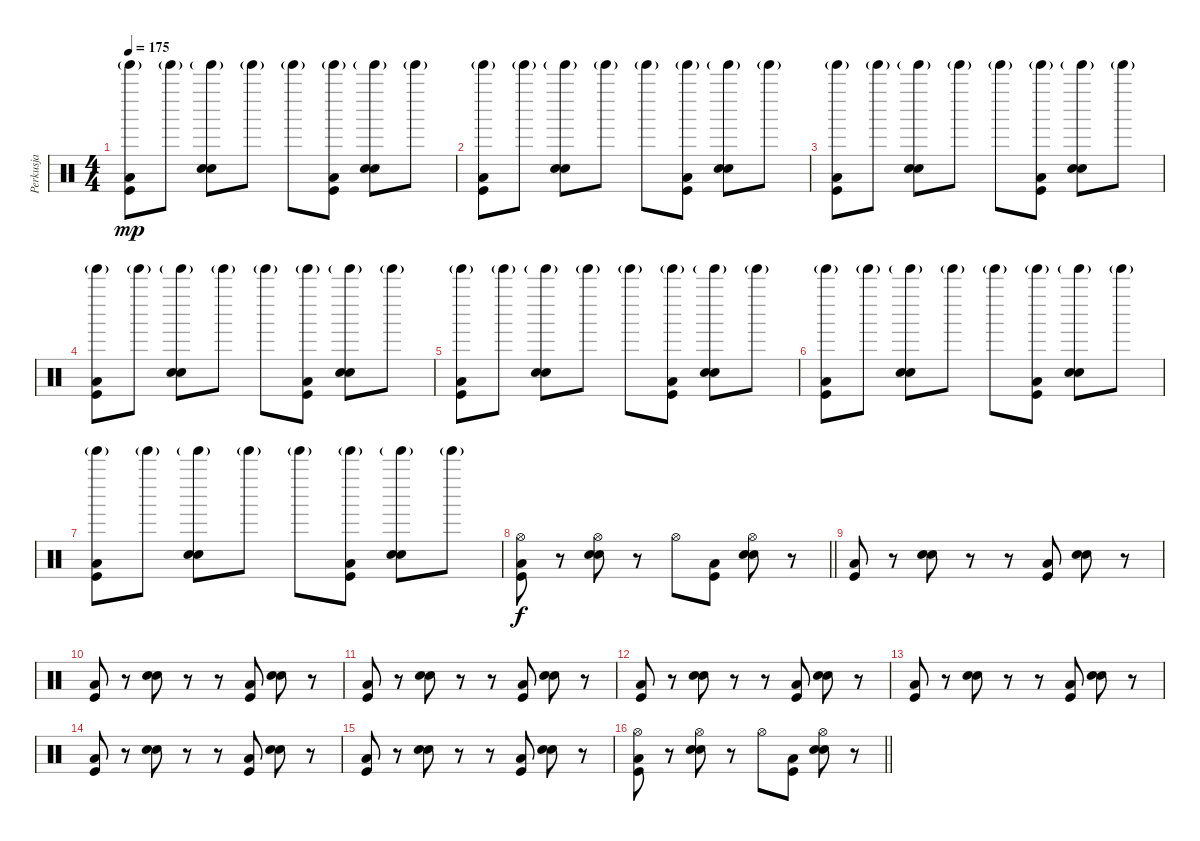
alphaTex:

\track ("Perkusja" "Perkusja") {instrument percussion}
\staff {score}
\articulation defaults
\ts (4 4)
\section ("" "")
\tempo 175
\clef neutral
\ks c
("Tinkle Bell (hit)"{g} "Low Floor Tom (hit)" "Kick (hit)").8{dy mp} "Tinkle Bell (hit)"{g}.8 ("Tinkle Bell (hit)"{g} "Snare (hit) 2" "Electric Snare (hit)").8 "Tinkle Bell (hit)"{g}.8 "Tinkle Bell (hit)"{g}.8 ("Tinkle Bell (hit)"{g} "Low Floor Tom (hit)" "Kick (hit)").8 ("Tinkle Bell (hit)"{g} "Snare (hit) 2" "Electric Snare (hit)").8 "Tinkle Bell (hit)"{g}.8 |
("Tinkle Bell (hit)"{g} "Low Floor Tom (hit)" "Kick (hit)").8 "Tinkle Bell (hit)"{g}.8 ("Tinkle Bell (hit)"{g} "Snare (hit) 2" "Electric Snare (hit)").8 "Tinkle Bell (hit)"{g}.8 "Tinkle Bell (hit)"{g}.8 ("Tinkle Bell (hit)"{g} "Low Floor Tom (hit)" "Kick (hit)").8 ("Tinkle Bell (hit)"{g} "Snare (hit) 2" "Electric Snare (hit)").8 "Tinkle Bell (hit)"{g}.8 |
("Tinkle Bell (hit)"{g} "Low Floor Tom (hit)" "Kick (hit)").8 "Tinkle Bell (hit)"{g}.8 ("Tinkle Bell (hit)"{g} "Snare (hit) 2" "Electric Snare (hit)").8 "Tinkle Bell (hit)"{g}.8 "Tinkle Bell (hit)"{g}.8 ("Tinkle Bell (hit)"{g} "Low Floor Tom (hit)" "Kick (hit)").8 ("Tinkle Bell (hit)"{g} "Snare (hit) 2" "Electric Snare (hit)").8 "Tinkle Bell (hit)"{g}.8 |
("Tinkle Bell (hit)"{g} "Low Floor Tom (hit)" "Kick (hit)").8 "Tinkle Bell (hit)"{g}.8 ("Tinkle Bell (hit)"{g} "Snare (hit) 2" "Electric Snare (hit)").8 "Tinkle Bell (hit)"{g}.8 "Tinkle Bell (hit)"{g}.8 ("Tinkle Bell (hit)"{g} "Low Floor Tom (hit)" "Kick (hit)").8 ("Tinkle Bell (hit)"{g} "Snare (hit) 2" "Electric Snare (hit)").8 "Tinkle Bell (hit)"{g}.8 |
("Tinkle Bell (hit)"{g} "Low Floor Tom (hit)" "Kick (hit)").8 "Tinkle Bell (hit)"{g}.8 ("Tinkle Bell (hit)"{g} "Snare (hit) 2" "Electric Snare (hit)").8 "Tinkle Bell (hit)"{g}.8 "Tinkle Bell (hit)"{g}.8 ("Tinkle Bell (hit)"{g} "Low Floor Tom (hit)" "Kick (hit)").8 ("Tinkle Bell (hit)"{g} "Snare (hit) 2" "Electric Snare (hit)").8 "Tinkle Bell (hit)"{g}.8 |
("Tinkle Bell (hit)"{g} "Low Floor Tom (hit)" "Kick (hit)").8 "Tinkle Bell (hit)"{g}.8 ("Tinkle Bell (hit)"{g} "Snare (hit) 2" "Electric Snare (hit)").8 "Tinkle Bell (hit)"{g}.8 "Tinkle Bell (hit)"{g}.8 ("Tinkle Bell (hit)"{g} "Low Floor Tom (hit)" "Kick (hit)").8 ("Tinkle Bell (hit)"{g} "Snare (hit) 2" "Electric Snare (hit)").8 "Tinkle Bell (hit)"{g}.8 |
("Tinkle Bell (hit)"{g} "Low Floor Tom (hit)" "Kick (hit)").8 "Tinkle Bell (hit)"{g}.8 ("Tinkle Bell (hit)"{g} "Snare (hit) 2" "Electric Snare (hit)").8 "Tinkle Bell (hit)"{g}.8 "Tinkle Bell (hit)"{g}.8 ("Tinkle Bell (hit)"{g} "Low Floor Tom (hit)" "Kick (hit)").8 ("Tinkle Bell (hit)"{g} "Snare (hit) 2" "Electric Snare (hit)").8 "Tinkle Bell (hit)"{g}.8 |
\barLineRight lightlight
("Hi-Hat (open)" "Low Floor Tom (hit)" "Kick (hit)").8{dy f} r.8 ("Hi-Hat (open)" "Snare (hit) 2" "Electric Snare (hit)").8 r.8 "Hi-Hat (open)".8 ("Low Floor Tom (hit)" "Kick (hit)").8 ("Hi-Hat (open)" "Snare (hit) 2" "Electric Snare (hit)").8 r.8 |
\section ("" "")
("Low Floor Tom (hit)" "Kick (hit)").8 r.8 ("Snare (hit) 2" "Electric Snare (hit)").8 r.8 r.8 ("Low Floor Tom (hit)" "Kick (hit)").8 ("Snare (hit) 2" "Electric Snare (hit)").8 r.8 |
("Low Floor Tom (hit)" "Kick (hit)").8 r.8 ("Snare (hit) 2" "Electric Snare (hit)").8 r.8 r.8 ("Low Floor Tom (hit)" "Kick (hit)").8 ("Snare (hit) 2" "Electric Snare (hit)").8 r.8 |
("Low Floor Tom (hit)" "Kick (hit)").8 r.8 ("Snare (hit) 2" "Electric Snare (hit)").8 r.8 r.8 ("Low Floor Tom (hit)" "Kick (hit)").8 ("Snare (hit) 2" "Electric Snare (hit)").8 r.8 |
("Low Floor Tom (hit)" "Kick (hit)").8 r.8 ("Snare (hit) 2" "Electric Snare (hit)").8 r.8 r.8 ("Low Floor Tom (hit)" "Kick (hit)").8 ("Snare (hit) 2" "Electric Snare (hit)").8 r.8 |
("Low Floor Tom (hit)" "Kick (hit)").8 r.8 ("Snare (hit) 2" "Electric Snare (hit)").8 r.8 r.8 ("Low Floor Tom (hit)" "Kick (hit)").8 ("Snare (hit) 2" "Electric Snare (hit)").8 r.8 |
("Low Floor Tom (hit)" "Kick (hit)").8 r.8 ("Snare (hit) 2" "Electric Snare (hit)").8 r.8 r.8 ("Low Floor Tom (hit)" "Kick (hit)").8 ("Snare (hit) 2" "Electric Snare (hit)").8 r.8 |
("Low Floor Tom (hit)" "Kick (hit)").8 r.8 ("Snare (hit) 2" "Electric Snare (hit)").8 r.8 r.8 ("Low Floor Tom (hit)" "Kick (hit)").8 ("Snare (hit) 2" "Electric Snare (hit)").8 r.8 |
\barLineRight lightlight
("Hi-Hat (open)" "Low Floor Tom (hit)" "Kick (hit)").8 r.8 ("Hi-Hat (open)" "Snare (hit) 2" "Electric Snare (hit)").8 r.8 "Hi-Hat (open)".8 ("Low Floor Tom (hit)" "Kick (hit)").8 ("Hi-Hat (open)" "Snare (hit) 2" "Electric Snare (hit)").8 r.8
